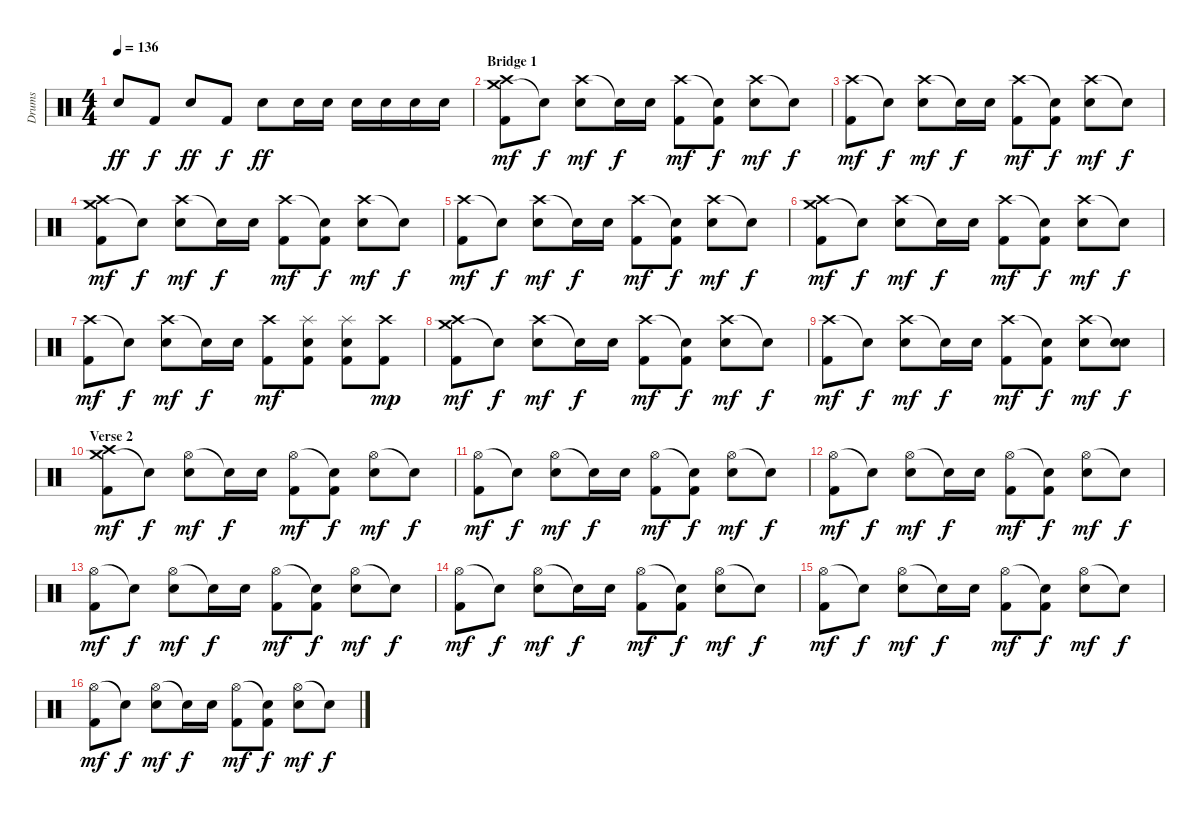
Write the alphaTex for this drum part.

\track ("Drums" "Drums") {instrument percussion}
\staff {score}
\articulation defaults
\ts (4 4)
\tempo 136
\clef neutral
\ks c "Electric Snare (hit)".8{dy ff} "Kick (hit) 2".8{dy f} "Electric Snare (hit)".8{dy ff} "Kick (hit) 2".8{dy f} "Electric Snare (hit)".8{dy ff} "Electric Snare (hit)".16 "Electric Snare (hit)".16 "Electric Snare (hit)".16 "Electric Snare (hit)".16 "Electric Snare (hit)".16 "Electric Snare (hit)".16
|
\section ("" "Bridge 1")
("Crash medium (hit)" "Crash high (hit)" "Kick (hit) 2").8{dy mf} "Snare (hit)"{t}.8{dy f} ("Crash high (hit)" "Electric Snare (hit)").8{dy mf} "Snare (hit)"{t}.16{dy f} "Electric Snare (hit)".16 ("Crash high (hit)" "Kick (hit) 2").8{dy mf} ("Snare (hit)"{t} "Kick (hit) 2").8{dy f} ("Crash high (hit)" "Electric Snare (hit)").8{dy mf} "Snare (hit)"{t}.8{dy f} |
("Crash high (hit)" "Kick (hit) 2").8{dy mf} "Snare (hit)"{t}.8{dy f} ("Crash high (hit)" "Electric Snare (hit)").8{dy mf} "Snare (hit)"{t}.16{dy f} "Electric Snare (hit)".16 ("Crash high (hit)" "Kick (hit) 2").8{dy mf} ("Snare (hit)"{t} "Kick (hit) 2").8{dy f} ("Crash high (hit)" "Electric Snare (hit)").8{dy mf} "Snare (hit)"{t}.8{dy f} |
("Crash medium (hit)" "Crash high (hit)" "Kick (hit) 2").8{dy mf} "Snare (hit)"{t}.8{dy f} ("Crash high (hit)" "Electric Snare (hit)").8{dy mf} "Snare (hit)"{t}.16{dy f} "Electric Snare (hit)".16 ("Crash high (hit)" "Kick (hit) 2").8{dy mf} ("Snare (hit)"{t} "Kick (hit) 2").8{dy f} ("Crash high (hit)" "Electric Snare (hit)").8{dy mf} "Snare (hit)"{t}.8{dy f} |
("Crash high (hit)" "Kick (hit) 2").8{dy mf} "Snare (hit)"{t}.8{dy f} ("Crash high (hit)" "Electric Snare (hit)").8{dy mf} "Snare (hit)"{t}.16{dy f} "Electric Snare (hit)".16 ("Crash high (hit)" "Kick (hit) 2").8{dy mf} ("Snare (hit)"{t} "Kick (hit) 2").8{dy f} ("Crash high (hit)" "Electric Snare (hit)").8{dy mf} "Snare (hit)"{t}.8{dy f} |
("Crash medium (hit)" "Crash high (hit)" "Kick (hit) 2").8{dy mf} "Snare (hit)"{t}.8{dy f} ("Crash high (hit)" "Electric Snare (hit)").8{dy mf} "Snare (hit)"{t}.16{dy f} "Electric Snare (hit)".16 ("Crash high (hit)" "Kick (hit) 2").8{dy mf} ("Snare (hit)"{t} "Kick (hit) 2").8{dy f} ("Crash high (hit)" "Electric Snare (hit)").8{dy mf} "Snare (hit)"{t}.8{dy f} |
("Crash high (hit)" "Kick (hit) 2").8{dy mf} "Snare (hit)"{t}.8{dy f} ("Crash high (hit)" "Electric Snare (hit)").8{dy mf} "Snare (hit)"{t}.16{dy f} "Electric Snare (hit)".16 ("Crash high (hit)" "Kick (hit) 2").8{dy mf} ("Splash (hit)" "Electric Snare (hit)" "Kick (hit) 2").8 ("Splash (hit)" "Electric Snare (hit)" "Kick (hit) 2").8 ("Crash high (hit)" "Kick (hit) 2").8{dy mp} |
("Crash medium (hit)" "Crash high (hit)" "Kick (hit) 2").8{dy mf} "Snare (hit)"{t}.8{dy f} ("Crash high (hit)" "Electric Snare (hit)").8{dy mf} "Snare (hit)"{t}.16{dy f} "Electric Snare (hit)".16 ("Crash high (hit)" "Kick (hit) 2").8{dy mf} ("Snare (hit)"{t} "Kick (hit) 2").8{dy f} ("Crash high (hit)" "Electric Snare (hit)").8{dy mf} "Snare (hit)"{t}.8{dy f} |
("Crash high (hit)" "Kick (hit) 2").8{dy mf} "Snare (hit)"{t}.8{dy f} ("Crash high (hit)" "Electric Snare (hit)").8{dy mf} "Snare (hit)"{t}.16{dy f} "Electric Snare (hit)".16 ("Crash high (hit)" "Kick (hit) 2").8{dy mf} ("Snare (hit)"{t} "Kick (hit) 2").8{dy f} ("Crash high (hit)" "Electric Snare (hit)").8{dy mf} ("Snare (hit)"{t} "Electric Snare (hit)").8{dy f} |
\section ("" "Verse 2")
("Crash medium (hit)" "Crash high (hit)" "Kick (hit) 2").8{dy mf} "Snare (hit)"{t}.8{dy f} ("Hi-Hat (open)" "Electric Snare (hit)").8{dy mf} "Snare (hit)"{t}.16{dy f} "Electric Snare (hit)".16 ("Hi-Hat (open)" "Kick (hit) 2").8{dy mf} ("Snare (hit)"{t} "Kick (hit) 2").8{dy f} ("Hi-Hat (open)" "Electric Snare (hit)").8{dy mf} "Snare (hit)"{t}.8{dy f} |
("Hi-Hat (open)" "Kick (hit) 2").8{dy mf} "Snare (hit)"{t}.8{dy f} ("Hi-Hat (open)" "Electric Snare (hit)").8{dy mf} "Snare (hit)"{t}.16{dy f} "Electric Snare (hit)".16 ("Hi-Hat (open)" "Kick (hit) 2").8{dy mf} ("Snare (hit)"{t} "Kick (hit) 2").8{dy f} ("Hi-Hat (open)" "Electric Snare (hit)").8{dy mf} "Snare (hit)"{t}.8{dy f} |
("Hi-Hat (open)" "Kick (hit) 2").8{dy mf} "Snare (hit)"{t}.8{dy f} ("Hi-Hat (open)" "Electric Snare (hit)").8{dy mf} "Snare (hit)"{t}.16{dy f} "Electric Snare (hit)".16 ("Hi-Hat (open)" "Kick (hit) 2").8{dy mf} ("Snare (hit)"{t} "Kick (hit) 2").8{dy f} ("Hi-Hat (open)" "Electric Snare (hit)").8{dy mf} "Snare (hit)"{t}.8{dy f} |
("Hi-Hat (open)" "Kick (hit) 2").8{dy mf} "Snare (hit)"{t}.8{dy f} ("Hi-Hat (open)" "Electric Snare (hit)").8{dy mf} "Snare (hit)"{t}.16{dy f} "Electric Snare (hit)".16 ("Hi-Hat (open)" "Kick (hit) 2").8{dy mf} ("Snare (hit)"{t} "Kick (hit) 2").8{dy f} ("Hi-Hat (open)" "Electric Snare (hit)").8{dy mf} "Snare (hit)"{t}.8{dy f} |
("Hi-Hat (open)" "Kick (hit) 2").8{dy mf} "Snare (hit)"{t}.8{dy f} ("Hi-Hat (open)" "Electric Snare (hit)").8{dy mf} "Snare (hit)"{t}.16{dy f} "Electric Snare (hit)".16 ("Hi-Hat (open)" "Kick (hit) 2").8{dy mf} ("Snare (hit)"{t} "Kick (hit) 2").8{dy f} ("Hi-Hat (open)" "Electric Snare (hit)").8{dy mf} "Snare (hit)"{t}.8{dy f} |
("Hi-Hat (open)" "Kick (hit) 2").8{dy mf} "Snare (hit)"{t}.8{dy f} ("Hi-Hat (open)" "Electric Snare (hit)").8{dy mf} "Snare (hit)"{t}.16{dy f} "Electric Snare (hit)".16 ("Hi-Hat (open)" "Kick (hit) 2").8{dy mf} ("Snare (hit)"{t} "Kick (hit) 2").8{dy f} ("Hi-Hat (open)" "Electric Snare (hit)").8{dy mf} "Snare (hit)"{t}.8{dy f} |
("Hi-Hat (open)" "Kick (hit) 2").8{dy mf} "Snare (hit)"{t}.8{dy f} ("Hi-Hat (open)" "Electric Snare (hit)").8{dy mf} "Snare (hit)"{t}.16{dy f} "Electric Snare (hit)".16 ("Hi-Hat (open)" "Kick (hit) 2").8{dy mf} ("Snare (hit)"{t} "Kick (hit) 2").8{dy f} ("Hi-Hat (open)" "Electric Snare (hit)").8{dy mf} "Snare (hit)"{t}.8{dy f}
